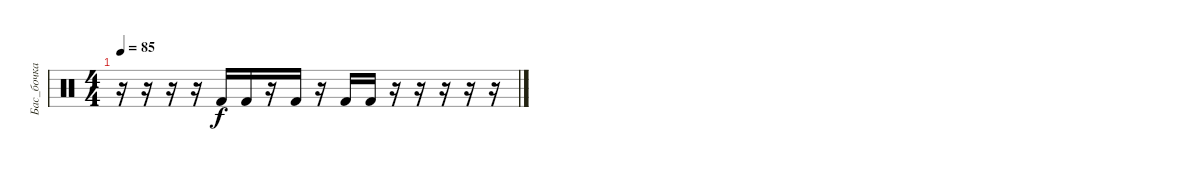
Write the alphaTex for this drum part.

\track ("Бас_бочка" "Бас_бочка") {instrument percussion}
\staff {score}
\articulation defaults
\ts (4 4)
\tempo 85
\clef neutral
\ks c
r.16{dy f} r.16 r.16 r.16 "Kick (hit) 2".16 "Kick (hit) 2".16 r.16 "Kick (hit) 2".16 r.16 "Kick (hit) 2".16 "Kick (hit) 2".16 r.16 r.16 r.16 r.16 r.16
